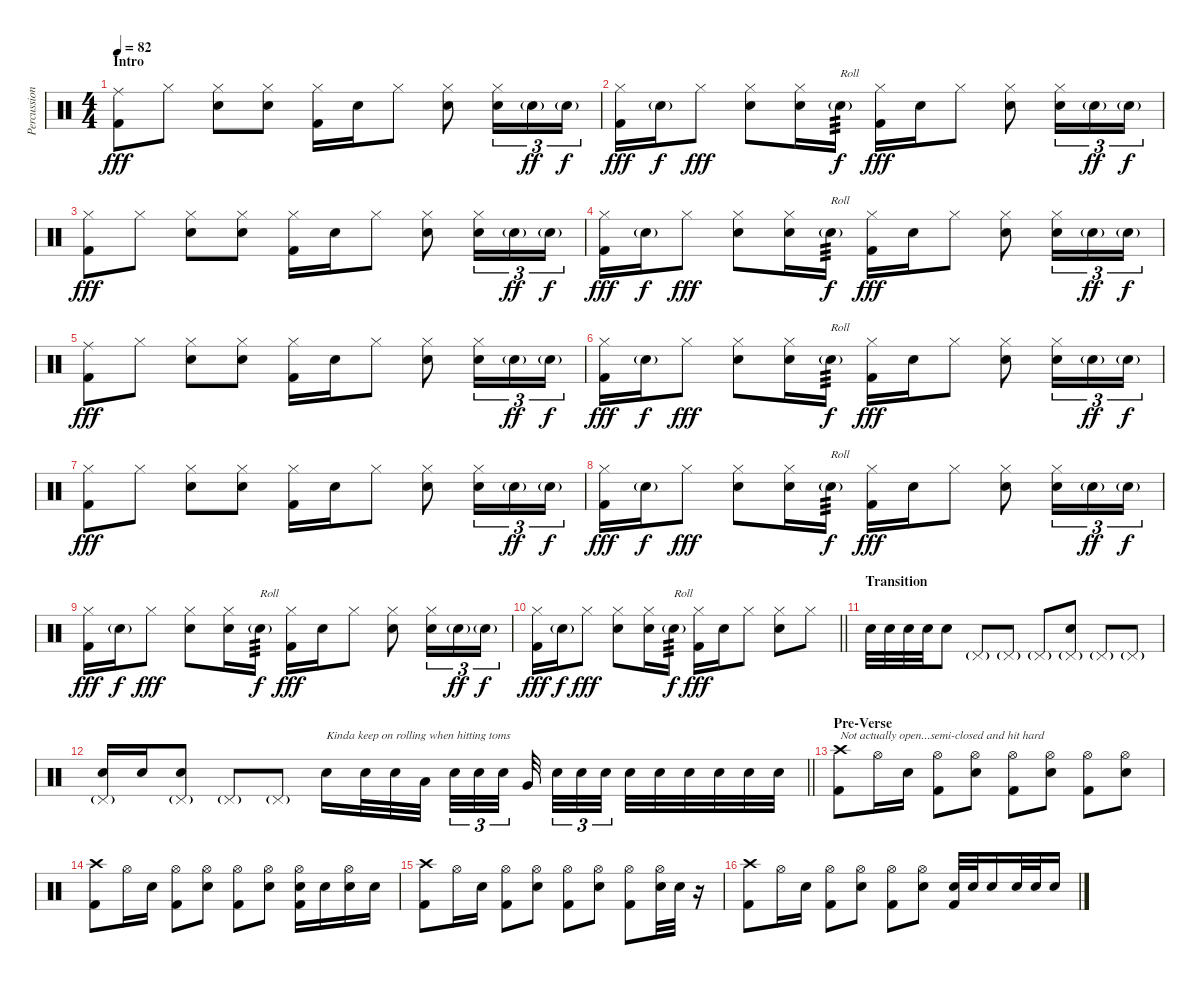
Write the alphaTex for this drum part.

\track ("Percussion" "Percussion") {instrument percussion}
\staff {score}
\articulation defaults
\ts (4 4)
\section ("" "Intro")
\tempo 82
\clef neutral
\ks c
("Ride (middle)" "Kick (hit) 2").8{dy fff} "Hi-Hat (closed)".8 ("Hi-Hat (closed)" "Electric Snare (hit)").8 ("Hi-Hat (closed)" "Electric Snare (hit)").8 ("Hi-Hat (closed)" "Kick (hit) 2").16 "Electric Snare (hit)".16 "Hi-Hat (closed)".8 ("Hi-Hat (closed)" "Electric Snare (hit)").8 ("Hi-Hat (closed)" "Electric Snare (hit)").16{tu (3 2)} "Electric Snare (hit)"{g}.16{tu (3 2) dy ff} "Electric Snare (hit)"{g}.16{tu (3 2) dy f} |
("Hi-Hat (closed)" "Kick (hit) 2").16{dy fff} "Electric Snare (hit)"{g}.16{dy f} "Hi-Hat (closed)".8{dy fff} ("Hi-Hat (closed)" "Electric Snare (hit)").8 ("Hi-Hat (closed)" "Electric Snare (hit)").16 "Electric Snare (hit)"{g}.16{txt "Roll" tp 3 dy f} ("Hi-Hat (closed)" "Kick (hit) 2").16{dy fff} "Electric Snare (hit)".16 "Hi-Hat (closed)".8 ("Hi-Hat (closed)" "Electric Snare (hit)").8 ("Hi-Hat (closed)" "Electric Snare (hit)").16{tu (3 2)} "Electric Snare (hit)"{g}.16{tu (3 2) dy ff} "Electric Snare (hit)"{g}.16{tu (3 2) dy f} |
("Hi-Hat (closed)" "Kick (hit) 2").8{dy fff} "Hi-Hat (closed)".8 ("Hi-Hat (closed)" "Electric Snare (hit)").8 ("Hi-Hat (closed)" "Electric Snare (hit)").8 ("Hi-Hat (closed)" "Kick (hit) 2").16 "Electric Snare (hit)".16 "Hi-Hat (closed)".8 ("Hi-Hat (closed)" "Electric Snare (hit)").8 ("Hi-Hat (closed)" "Electric Snare (hit)").16{tu (3 2)} "Electric Snare (hit)"{g}.16{tu (3 2) dy ff} "Electric Snare (hit)"{g}.16{tu (3 2) dy f} |
("Hi-Hat (closed)" "Kick (hit) 2").16{dy fff} "Electric Snare (hit)"{g}.16{dy f} "Hi-Hat (closed)".8{dy fff} ("Hi-Hat (closed)" "Electric Snare (hit)").8 ("Hi-Hat (closed)" "Electric Snare (hit)").16 "Electric Snare (hit)"{g}.16{txt "Roll" tp 3 dy f} ("Hi-Hat (closed)" "Kick (hit) 2").16{dy fff} "Electric Snare (hit)".16 "Hi-Hat (closed)".8 ("Hi-Hat (closed)" "Electric Snare (hit)").8 ("Hi-Hat (closed)" "Electric Snare (hit)").16{tu (3 2)} "Electric Snare (hit)"{g}.16{tu (3 2) dy ff} "Electric Snare (hit)"{g}.16{tu (3 2) dy f} |
("Ride (middle)" "Kick (hit) 2").8{dy fff} "Hi-Hat (closed)".8 ("Hi-Hat (closed)" "Electric Snare (hit)").8 ("Hi-Hat (closed)" "Electric Snare (hit)").8 ("Hi-Hat (closed)" "Kick (hit) 2").16 "Electric Snare (hit)".16 "Hi-Hat (closed)".8 ("Hi-Hat (closed)" "Electric Snare (hit)").8 ("Hi-Hat (closed)" "Electric Snare (hit)").16{tu (3 2)} "Electric Snare (hit)"{g}.16{tu (3 2) dy ff} "Electric Snare (hit)"{g}.16{tu (3 2) dy f} |
("Hi-Hat (closed)" "Kick (hit) 2").16{dy fff} "Electric Snare (hit)"{g}.16{dy f} "Hi-Hat (closed)".8{dy fff} ("Hi-Hat (closed)" "Electric Snare (hit)").8 ("Hi-Hat (closed)" "Electric Snare (hit)").16 "Electric Snare (hit)"{g}.16{txt "Roll" tp 3 dy f} ("Hi-Hat (closed)" "Kick (hit) 2").16{dy fff} "Electric Snare (hit)".16 "Hi-Hat (closed)".8 ("Hi-Hat (closed)" "Electric Snare (hit)").8 ("Hi-Hat (closed)" "Electric Snare (hit)").16{tu (3 2)} "Electric Snare (hit)"{g}.16{tu (3 2) dy ff} "Electric Snare (hit)"{g}.16{tu (3 2) dy f} |
("Hi-Hat (closed)" "Kick (hit) 2").8{dy fff} "Hi-Hat (closed)".8 ("Hi-Hat (closed)" "Electric Snare (hit)").8 ("Hi-Hat (closed)" "Electric Snare (hit)").8 ("Hi-Hat (closed)" "Kick (hit) 2").16 "Electric Snare (hit)".16 "Hi-Hat (closed)".8 ("Hi-Hat (closed)" "Electric Snare (hit)").8 ("Hi-Hat (closed)" "Electric Snare (hit)").16{tu (3 2)} "Electric Snare (hit)"{g}.16{tu (3 2) dy ff} "Electric Snare (hit)"{g}.16{tu (3 2) dy f} |
("Hi-Hat (closed)" "Kick (hit) 2").16{dy fff} "Electric Snare (hit)"{g}.16{dy f} "Hi-Hat (closed)".8{dy fff} ("Hi-Hat (closed)" "Electric Snare (hit)").8 ("Hi-Hat (closed)" "Electric Snare (hit)").16 "Electric Snare (hit)"{g}.16{txt "Roll" tp 3 dy f} ("Hi-Hat (closed)" "Kick (hit) 2").16{dy fff} "Electric Snare (hit)".16 "Hi-Hat (closed)".8 ("Hi-Hat (closed)" "Electric Snare (hit)").8 ("Hi-Hat (closed)" "Electric Snare (hit)").16{tu (3 2)} "Electric Snare (hit)"{g}.16{tu (3 2) dy ff} "Electric Snare (hit)"{g}.16{tu (3 2) dy f} |
("Hi-Hat (closed)" "Kick (hit) 2").16{dy fff} "Electric Snare (hit)"{g}.16{dy f} "Hi-Hat (closed)".8{dy fff} ("Hi-Hat (closed)" "Electric Snare (hit)").8 ("Hi-Hat (closed)" "Electric Snare (hit)").16 "Electric Snare (hit)"{g}.16{txt "Roll" tp 3 dy f} ("Hi-Hat (closed)" "Kick (hit) 2").16{dy fff} "Electric Snare (hit)".16 "Hi-Hat (closed)".8 ("Hi-Hat (closed)" "Electric Snare (hit)").8 ("Hi-Hat (closed)" "Electric Snare (hit)").16{tu (3 2)} "Electric Snare (hit)"{g}.16{tu (3 2) dy ff} "Electric Snare (hit)"{g}.16{tu (3 2) dy f} |
\barLineRight lightlight
("Hi-Hat (closed)" "Kick (hit) 2").16{dy fff} "Electric Snare (hit)"{g}.16{dy f} "Hi-Hat (closed)".8{dy fff} ("Hi-Hat (closed)" "Electric Snare (hit)").8 ("Hi-Hat (closed)" "Electric Snare (hit)").16 "Electric Snare (hit)"{g}.16{txt "Roll" tp 3 dy f} ("Hi-Hat (closed)" "Kick (hit) 2").16{dy fff} "Electric Snare (hit)".16 "Hi-Hat (closed)".8 ("Hi-Hat (closed)" "Electric Snare (hit)").8 "Hi-Hat (closed)".8 |
\section ("" "Transition")
"Electric Snare (hit)".32 "Electric Snare (hit)".32 "Electric Snare (hit)".32 "Electric Snare (hit)".32 "Electric Snare (hit)".8 "Pedal Hi-Hat (hit)"{g}.8 "Pedal Hi-Hat (hit)"{g}.8 "Pedal Hi-Hat (hit)"{g}.8 ("Pedal Hi-Hat (hit)"{g} "Electric Snare (hit)").8 "Pedal Hi-Hat (hit)"{g}.8 "Pedal Hi-Hat (hit)"{g}.8 |
\barLineRight lightlight
("Pedal Hi-Hat (hit)"{g} "Electric Snare (hit)").16 "Electric Snare (hit)".16 ("Pedal Hi-Hat (hit)"{g} "Electric Snare (hit)").8 "Pedal Hi-Hat (hit)"{g}.8 "Pedal Hi-Hat (hit)"{g}.8 "Electric Snare (hit)".16{txt "Kinda keep on rolling when hitting toms"} "Electric Snare (hit)".32 "Electric Snare (hit)".32 "Low Tom (hit)".32{beam splitsecondary} "Electric Snare (hit)".32{tu (3 2)} "Electric Snare (hit)".32{tu (3 2)} "Electric Snare (hit)".32{tu (3 2) beam splitsecondary} "Very Low Tom (hit)".32 "Electric Snare (hit)".32{tu (3 2)} "Electric Snare (hit)".32{tu (3 2)} "Electric Snare (hit)".32{tu (3 2) beam splitsecondary} "Electric Snare (hit)".32 "Electric Snare (hit)".32 "Electric Snare (hit)".32 "Electric Snare (hit)".32 "Electric Snare (hit)".32 "Electric Snare (hit)".32 |
\section ("" "Pre-Verse")
("Crash high (hit)" "Kick (hit) 2").8{txt "Not actually open...semi-closed and hit hard"} "Hi-Hat (open)".16 "Electric Snare (hit)".16 ("Hi-Hat (open)" "Kick (hit) 2").8 ("Hi-Hat (open)" "Electric Snare (hit)").8 ("Hi-Hat (open)" "Kick (hit) 2").8 ("Hi-Hat (open)" "Electric Snare (hit)").8 ("Hi-Hat (open)" "Kick (hit) 2").8 ("Hi-Hat (open)" "Electric Snare (hit)").8 |
("Crash high (hit)" "Kick (hit) 2").8 "Hi-Hat (open)".16 "Electric Snare (hit)".16 ("Hi-Hat (open)" "Kick (hit) 2").8 ("Hi-Hat (open)" "Electric Snare (hit)").8 ("Hi-Hat (open)" "Kick (hit) 2").8 ("Hi-Hat (open)" "Electric Snare (hit)").8 ("Hi-Hat (open)" "Electric Snare (hit)" "Kick (hit) 2").16 "Electric Snare (hit)".16 ("Hi-Hat (open)" "Electric Snare (hit)").16 "Electric Snare (hit)".16 |
("Crash high (hit)" "Kick (hit) 2").8 "Hi-Hat (open)".16 "Electric Snare (hit)".16 ("Hi-Hat (open)" "Kick (hit) 2").8 ("Hi-Hat (open)" "Electric Snare (hit)").8 ("Hi-Hat (open)" "Kick (hit) 2").8 ("Hi-Hat (open)" "Electric Snare (hit)").8 ("Hi-Hat (open)" "Kick (hit) 2").8 ("Hi-Hat (open)" "Electric Snare (hit)").32 "Electric Snare (hit)".32 r.16 |
("Crash high (hit)" "Kick (hit) 2").8 "Hi-Hat (open)".16 "Electric Snare (hit)".16 ("Hi-Hat (open)" "Kick (hit) 2").8 ("Hi-Hat (open)" "Electric Snare (hit)").8 ("Hi-Hat (open)" "Kick (hit) 2").8 ("Hi-Hat (open)" "Electric Snare (hit)").8 ("Electric Snare (hit)" "Kick (hit) 2").32 "Electric Snare (hit)".32 "Electric Snare (hit)".16 "Electric Snare (hit)".32 "Electric Snare (hit)".32 "Electric Snare (hit)".16
